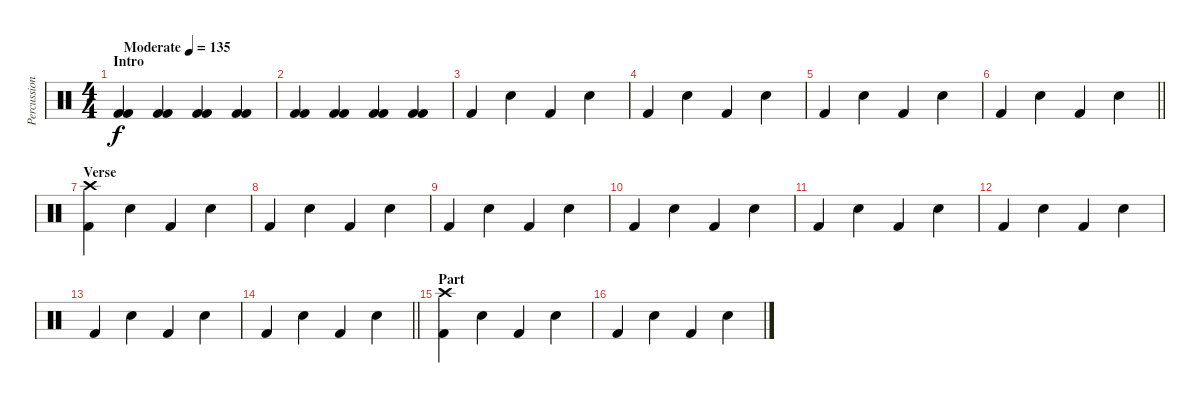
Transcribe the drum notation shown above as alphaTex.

\track ("Percussion" "Percussion") {instrument percussion}
\staff
\articulation defaults
\ts (4 4)
\section ("" "Intro")
\tempo (135 "Moderate")
\clef neutral
\ks c
("Kick (hit) 2" "Kick (hit) 2").4{dy f} ("Kick (hit) 2" "Kick (hit) 2").4 ("Kick (hit) 2" "Kick (hit) 2").4 ("Kick (hit) 2" "Kick (hit) 2").4 |
("Kick (hit) 2" "Kick (hit) 2").4 ("Kick (hit) 2" "Kick (hit) 2").4 ("Kick (hit) 2" "Kick (hit) 2").4 ("Kick (hit) 2" "Kick (hit) 2").4 |
"Kick (hit) 2".4 "Snare (hit) 2".4 "Kick (hit) 2".4 "Snare (hit) 2".4 |
"Kick (hit) 2".4 "Snare (hit) 2".4 "Kick (hit) 2".4 "Snare (hit) 2".4 |
"Kick (hit) 2".4 "Snare (hit) 2".4 "Kick (hit) 2".4 "Snare (hit) 2".4 |
\barLineRight lightlight "Kick (hit) 2".4 "Snare (hit) 2".4 "Kick (hit) 2".4 "Snare (hit) 2".4
|
\section ("" "Verse")
("Crash high (hit)" "Kick (hit) 2").4 "Snare (hit) 2".4 "Kick (hit) 2".4 "Snare (hit) 2".4 |
"Kick (hit) 2".4 "Snare (hit) 2".4 "Kick (hit) 2".4 "Snare (hit) 2".4 |
"Kick (hit) 2".4 "Snare (hit) 2".4 "Kick (hit) 2".4 "Snare (hit) 2".4 |
"Kick (hit) 2".4 "Snare (hit) 2".4 "Kick (hit) 2".4 "Snare (hit) 2".4 |
"Kick (hit) 2".4 "Snare (hit) 2".4 "Kick (hit) 2".4 "Snare (hit) 2".4 |
"Kick (hit) 2".4 "Snare (hit) 2".4 "Kick (hit) 2".4 "Snare (hit) 2".4 |
"Kick (hit) 2".4 "Snare (hit) 2".4 "Kick (hit) 2".4 "Snare (hit) 2".4 |
\barLineRight lightlight "Kick (hit) 2".4 "Snare (hit) 2".4 "Kick (hit) 2".4 "Snare (hit) 2".4
|
\section ("" "Part")
("Crash high (hit)" "Kick (hit) 2").4 "Snare (hit) 2".4 "Kick (hit) 2".4 "Snare (hit) 2".4 |
"Kick (hit) 2".4 "Snare (hit) 2".4 "Kick (hit) 2".4 "Snare (hit) 2".4
